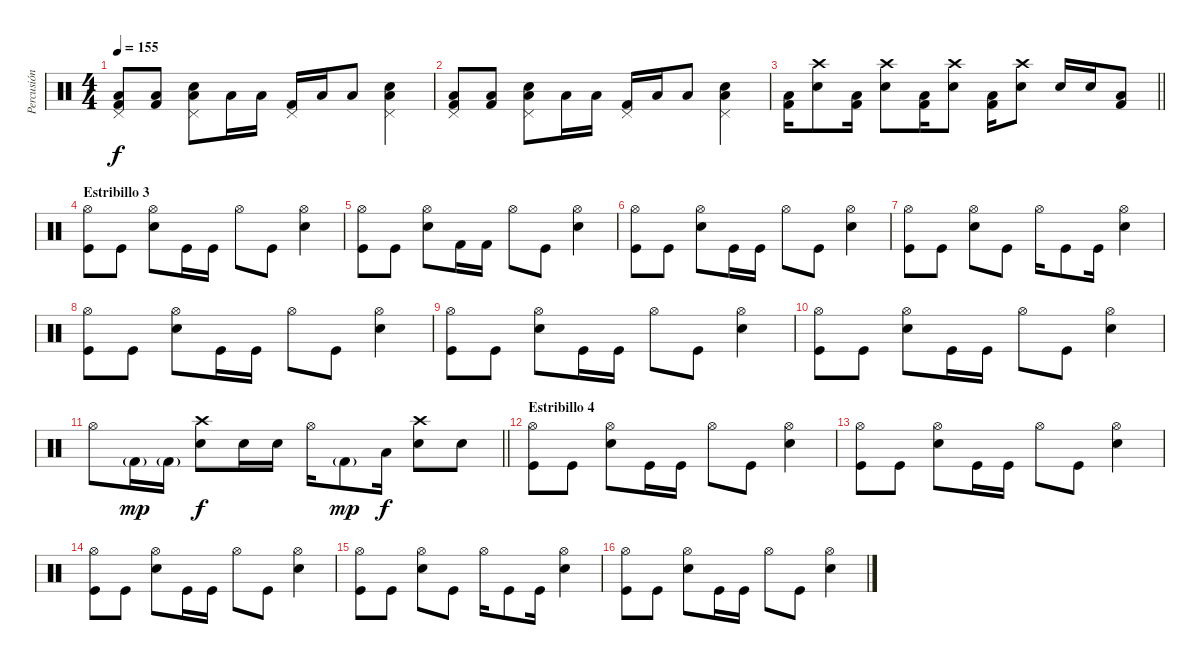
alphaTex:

\track ("Percusión" "Percusión") {instrument percussion}
\staff {score}
\articulation defaults
\ts (4 4)
\tempo 155
\clef neutral
\ks c
("Low Floor Tom (hit)" "Kick (hit) 2" "Pedal Hi-Hat (hit)").8{dy f} ("Low Floor Tom (hit)" "Kick (hit) 2").8 ("Snare (hit) 2" "Low Floor Tom (hit)" "Pedal Hi-Hat (hit)").8 "Low Floor Tom (hit)".16 "Low Floor Tom (hit)".16 ("Kick (hit) 2" "Pedal Hi-Hat (hit)").16 "Low Floor Tom (hit)".16 "Low Floor Tom (hit)".8 ("Snare (hit) 2" "Low Floor Tom (hit)" "Pedal Hi-Hat (hit)").4 |
("Low Floor Tom (hit)" "Kick (hit) 2" "Pedal Hi-Hat (hit)").8 ("Low Floor Tom (hit)" "Kick (hit) 2").8 ("Snare (hit) 2" "Low Floor Tom (hit)" "Pedal Hi-Hat (hit)").8 "Low Floor Tom (hit)".16 "Low Floor Tom (hit)".16 ("Kick (hit) 2" "Pedal Hi-Hat (hit)").16 "Low Floor Tom (hit)".16 "Low Floor Tom (hit)".8 ("Snare (hit) 2" "Low Floor Tom (hit)" "Pedal Hi-Hat (hit)").4 |
\barLineRight lightlight
("Low Floor Tom (hit)" "Kick (hit) 2").16 ("Crash high (hit)" "Snare (hit) 2").8 ("Low Floor Tom (hit)" "Kick (hit) 2").16 ("Crash high (hit)" "Snare (hit) 2").8 ("Low Floor Tom (hit)" "Kick (hit) 2").16 ("Crash high (hit)" "Snare (hit) 2").8 ("Low Floor Tom (hit)" "Kick (hit) 2").16 ("Crash high (hit)" "Snare (hit) 2").8 "Snare (hit) 2".16 "Snare (hit) 2".16 ("Low Floor Tom (hit)" "Kick (hit) 2").8 |
\section ("" "Estribillo 3")
("Hi-Hat (open)" "Kick (hit)").8 "Kick (hit)".8 ("Hi-Hat (open)" "Snare (hit) 2").8 "Kick (hit)".16 "Kick (hit)".16 "Hi-Hat (open)".8 "Kick (hit)".8 ("Hi-Hat (open)" "Snare (hit) 2").4 |
("Hi-Hat (open)" "Kick (hit)").8 "Kick (hit)".8 ("Hi-Hat (open)" "Snare (hit) 2").8 "Kick (hit) 2".16 "Kick (hit) 2".16 "Hi-Hat (open)".8 "Kick (hit)".8 ("Hi-Hat (open)" "Snare (hit) 2").4 |
("Hi-Hat (open)" "Kick (hit)").8 "Kick (hit)".8 ("Hi-Hat (open)" "Snare (hit) 2").8 "Kick (hit)".16 "Kick (hit)".16 "Hi-Hat (open)".8 "Kick (hit)".8 ("Hi-Hat (open)" "Snare (hit) 2").4 |
("Hi-Hat (open)" "Kick (hit)").8 "Kick (hit)".8 ("Hi-Hat (open)" "Snare (hit) 2").8 "Kick (hit)".8 "Hi-Hat (open)".16 "Kick (hit)".8 "Kick (hit)".16 ("Hi-Hat (open)" "Snare (hit) 2").4 |
("Hi-Hat (open)" "Kick (hit)").8 "Kick (hit)".8 ("Hi-Hat (open)" "Snare (hit) 2").8 "Kick (hit)".16 "Kick (hit)".16 "Hi-Hat (open)".8 "Kick (hit)".8 ("Hi-Hat (open)" "Snare (hit) 2").4 |
("Hi-Hat (open)" "Kick (hit)").8 "Kick (hit)".8 ("Hi-Hat (open)" "Snare (hit) 2").8 "Kick (hit)".16 "Kick (hit)".16 "Hi-Hat (open)".8 "Kick (hit)".8 ("Hi-Hat (open)" "Snare (hit) 2").4 |
("Hi-Hat (open)" "Kick (hit)").8 "Kick (hit)".8 ("Hi-Hat (open)" "Snare (hit) 2").8 "Kick (hit)".16 "Kick (hit)".16 "Hi-Hat (open)".8 "Kick (hit)".8 ("Hi-Hat (open)" "Snare (hit) 2").4 |
\barLineRight lightlight "Hi-Hat (open)".8 "Kick (hit) 2"{g}.16{dy mp} "Kick (hit) 2"{g}.16
("Crash high (hit)" "Snare (hit) 2").8{dy f} "Snare (hit) 2".16 "Snare (hit) 2".16 "Hi-Hat (open)".16 "Kick (hit) 2"{g}.8{dy mp} "Low Floor Tom (hit)".16{dy f} ("Crash high (hit)" "Snare (hit) 2").8 "Snare (hit) 2".8 |
\section ("" "Estribillo 4")
("Hi-Hat (open)" "Kick (hit)").8 "Kick (hit)".8 ("Hi-Hat (open)" "Snare (hit) 2").8 "Kick (hit)".16 "Kick (hit)".16 "Hi-Hat (open)".8 "Kick (hit)".8 ("Hi-Hat (open)" "Snare (hit) 2").4 |
("Hi-Hat (open)" "Kick (hit)").8 "Kick (hit)".8 ("Hi-Hat (open)" "Snare (hit) 2").8 "Kick (hit)".16 "Kick (hit)".16 "Hi-Hat (open)".8 "Kick (hit)".8 ("Hi-Hat (open)" "Snare (hit) 2").4 |
("Hi-Hat (open)" "Kick (hit)").8 "Kick (hit)".8 ("Hi-Hat (open)" "Snare (hit) 2").8 "Kick (hit)".16 "Kick (hit)".16 "Hi-Hat (open)".8 "Kick (hit)".8 ("Hi-Hat (open)" "Snare (hit) 2").4 |
("Hi-Hat (open)" "Kick (hit)").8 "Kick (hit)".8 ("Hi-Hat (open)" "Snare (hit) 2").8 "Kick (hit)".8 "Hi-Hat (open)".16 "Kick (hit)".8 "Kick (hit)".16 ("Hi-Hat (open)" "Snare (hit) 2").4 |
("Hi-Hat (open)" "Kick (hit)").8 "Kick (hit)".8 ("Hi-Hat (open)" "Snare (hit) 2").8 "Kick (hit)".16 "Kick (hit)".16 "Hi-Hat (open)".8 "Kick (hit)".8 ("Hi-Hat (open)" "Snare (hit) 2").4
